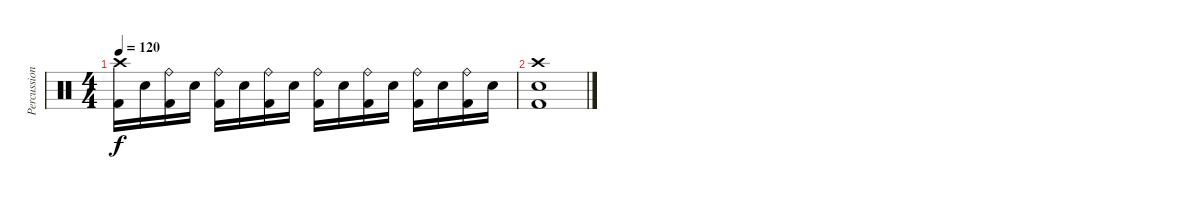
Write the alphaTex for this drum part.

\track ("Percussion" "Percussion") {instrument percussion}
\staff {score}
\articulation defaults
\ts (4 4)
\tempo 120
\clef neutral
\ks c
("Crash high (hit)" "Kick (hit) 2").16{dy f} "Electric Snare (hit)".16 ("Ride (bell)" "Kick (hit) 2").16 "Electric Snare (hit)".16 ("Ride (bell)" "Kick (hit) 2").16 "Electric Snare (hit)".16 ("Ride (bell)" "Kick (hit) 2").16 "Electric Snare (hit)".16 ("Ride (bell)" "Kick (hit) 2").16 "Electric Snare (hit)".16 ("Ride (bell)" "Kick (hit) 2").16 "Electric Snare (hit)".16 ("Ride (bell)" "Kick (hit) 2").16 "Electric Snare (hit)".16 ("Ride (bell)" "Kick (hit) 2").16 "Electric Snare (hit)".16 |
("Crash high (hit)" "Electric Snare (hit)" "Kick (hit) 2").1
